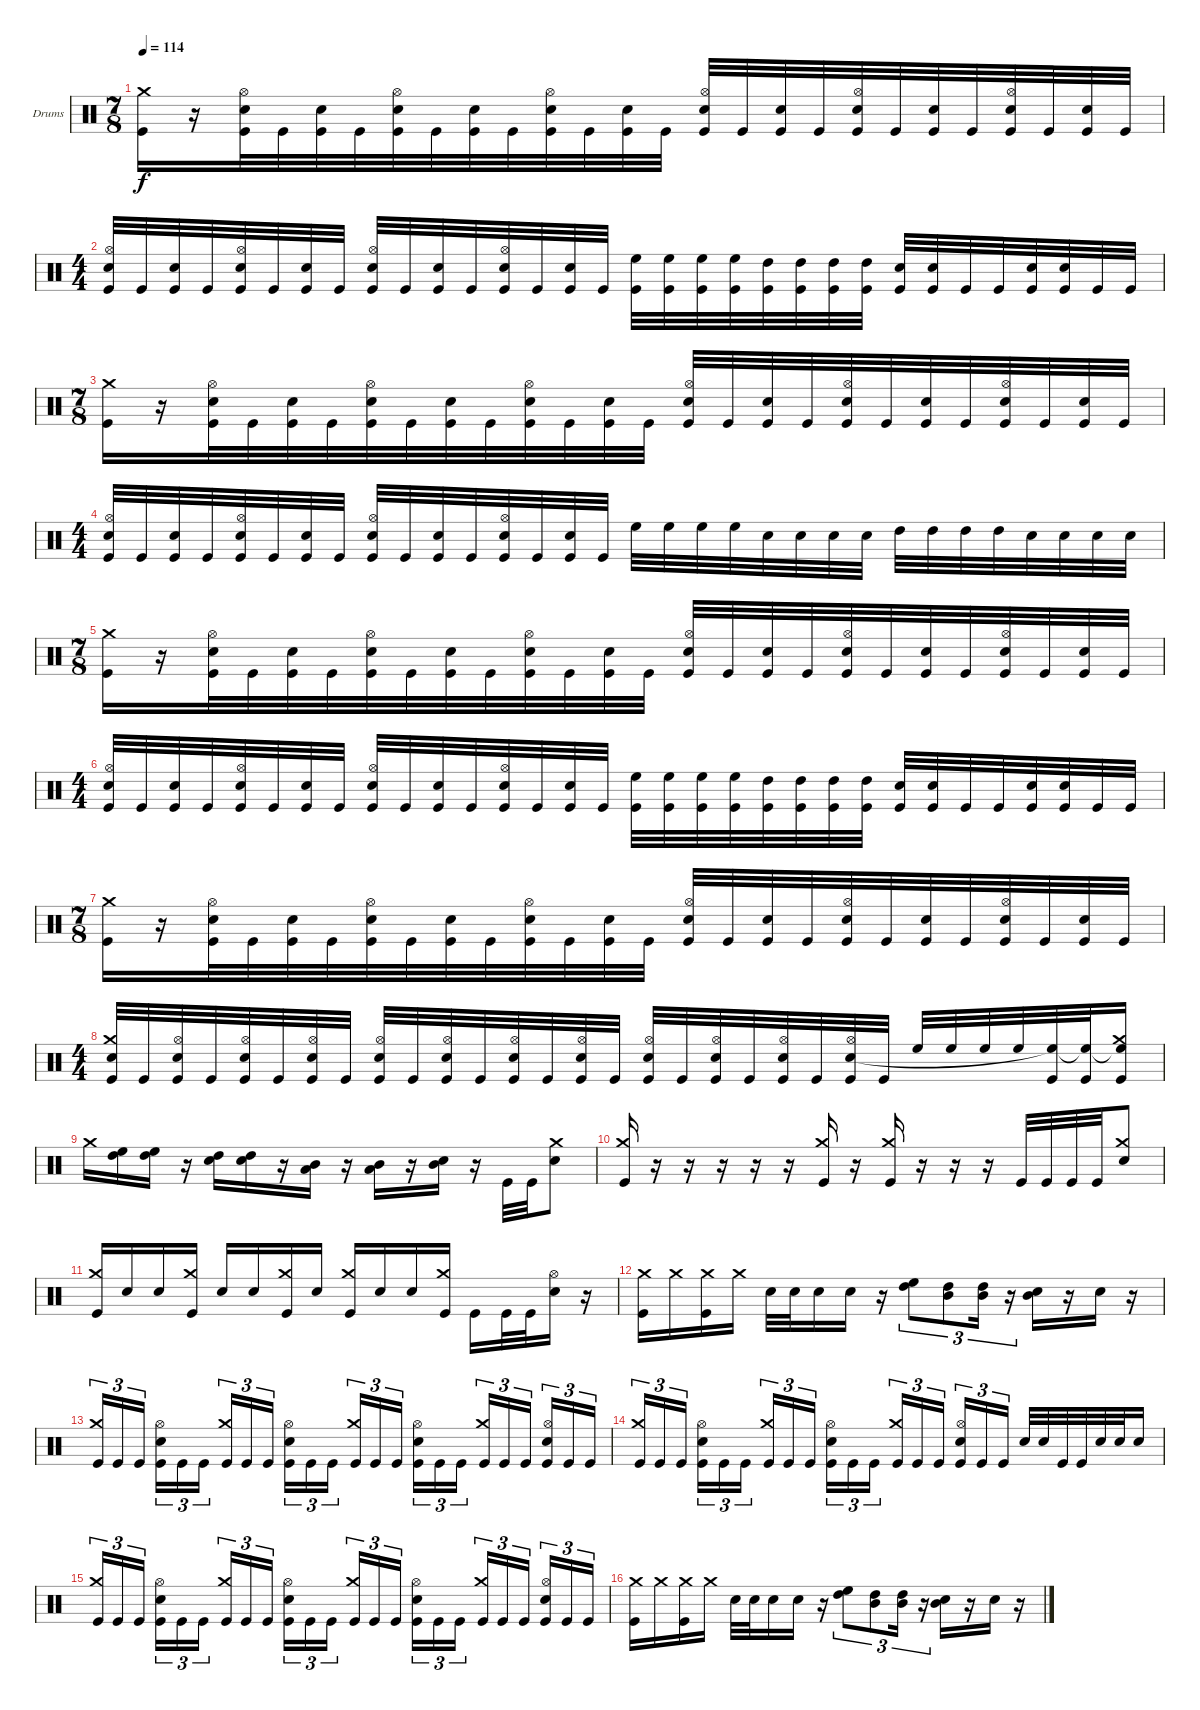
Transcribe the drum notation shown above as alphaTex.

\defaultSystemsLayout 4
\bracketExtendMode groupsimilarinstruments
\firstSystemTrackNameOrientation horizontal
\otherSystemsTrackNameOrientation horizontal
\track ("Drumkit" "Drums") {instrument percussion}
\staff {score}
\articulation defaults
\ts (7 8)
\tempo 114
\clef neutral
\ks c
("Kick (hit)" "Crash medium (hit)").16{dy f} r.16 ("Hi-Hat (open)" "Snare (hit) 2" "Kick (hit)").32 "Kick (hit)".32 ("Snare (hit) 2" "Kick (hit)").32 "Kick (hit)".32 ("Kick (hit)" "Snare (hit) 2" "Hi-Hat (open)").32 "Kick (hit)".32 ("Kick (hit)" "Snare (hit) 2").32 "Kick (hit)".32 ("Snare (hit) 2" "Kick (hit)" "Hi-Hat (open)").32 "Kick (hit)".32 ("Kick (hit)" "Snare (hit) 2").32 "Kick (hit)".32 ("Hi-Hat (open)" "Snare (hit) 2" "Kick (hit)").32 "Kick (hit)".32 ("Kick (hit)" "Snare (hit) 2").32 "Kick (hit)".32 ("Hi-Hat (open)" "Snare (hit) 2" "Kick (hit)").32 "Kick (hit)".32 ("Kick (hit)" "Snare (hit) 2").32 "Kick (hit)".32 ("Kick (hit)" "Snare (hit) 2" "Hi-Hat (open)").32 "Kick (hit)".32 ("Kick (hit)" "Snare (hit) 2").32 "Kick (hit)".32 |
\ts (4 4)
("Hi-Hat (open)" "Snare (hit) 2" "Kick (hit)").32 "Kick (hit)".32 ("Kick (hit)" "Snare (hit) 2").32 "Kick (hit)".32 ("Kick (hit)" "Snare (hit) 2" "Hi-Hat (open)").32 "Kick (hit)".32 ("Kick (hit)" "Snare (hit) 2").32 "Kick (hit)".32 ("Kick (hit)" "Snare (hit) 2" "Hi-Hat (open)").32 "Kick (hit)".32 ("Kick (hit)" "Snare (hit) 2").32 "Kick (hit)".32 ("Kick (hit)" "Snare (hit) 2" "Hi-Hat (open)").32 "Kick (hit)".32 ("Snare (hit) 2" "Kick (hit)").32 "Kick (hit)".32 ("High Floor Tom (hit)" "Kick (hit)").32 ("High Floor Tom (hit)" "Kick (hit)").32 ("High Floor Tom (hit)" "Kick (hit)").32 ("High Floor Tom (hit)" "Kick (hit)").32 ("Kick (hit)" "High Tom (hit)").32{beam invert} ("Kick (hit)" "High Tom (hit)").32 ("Kick (hit)" "High Tom (hit)").32 ("Kick (hit)" "High Tom (hit)").32 ("Snare (hit) 2" "Kick (hit)").32 ("Snare (hit) 2" "Kick (hit)").32 "Kick (hit)".32 "Kick (hit)".32 ("Kick (hit)" "Snare (hit) 2").32 ("Kick (hit)" "Snare (hit) 2").32 "Kick (hit)".32 "Kick (hit)".32 |
\ts (7 8)
("Kick (hit)" "Crash medium (hit)").16 r.16 ("Hi-Hat (open)" "Snare (hit) 2" "Kick (hit)").32 "Kick (hit)".32 ("Snare (hit) 2" "Kick (hit)").32 "Kick (hit)".32 ("Kick (hit)" "Snare (hit) 2" "Hi-Hat (open)").32 "Kick (hit)".32 ("Kick (hit)" "Snare (hit) 2").32 "Kick (hit)".32 ("Snare (hit) 2" "Kick (hit)" "Hi-Hat (open)").32 "Kick (hit)".32 ("Kick (hit)" "Snare (hit) 2").32 "Kick (hit)".32 ("Hi-Hat (open)" "Snare (hit) 2" "Kick (hit)").32 "Kick (hit)".32 ("Kick (hit)" "Snare (hit) 2").32 "Kick (hit)".32 ("Hi-Hat (open)" "Snare (hit) 2" "Kick (hit)").32 "Kick (hit)".32 ("Kick (hit)" "Snare (hit) 2").32 "Kick (hit)".32 ("Kick (hit)" "Snare (hit) 2" "Hi-Hat (open)").32 "Kick (hit)".32 ("Kick (hit)" "Snare (hit) 2").32 "Kick (hit)".32 |
\ts (4 4)
("Hi-Hat (open)" "Snare (hit) 2" "Kick (hit)").32 "Kick (hit)".32 ("Kick (hit)" "Snare (hit) 2").32 "Kick (hit)".32 ("Kick (hit)" "Snare (hit) 2" "Hi-Hat (open)").32 "Kick (hit)".32 ("Kick (hit)" "Snare (hit) 2").32 "Kick (hit)".32 ("Kick (hit)" "Snare (hit) 2" "Hi-Hat (open)").32 "Kick (hit)".32 ("Kick (hit)" "Snare (hit) 2").32 "Kick (hit)".32 ("Kick (hit)" "Snare (hit) 2" "Hi-Hat (open)").32 "Kick (hit)".32 ("Snare (hit) 2" "Kick (hit)").32 "Kick (hit)".32 "High Floor Tom (hit)".32 "High Floor Tom (hit)".32 "High Floor Tom (hit)".32 "High Floor Tom (hit)".32 "Snare (hit) 2".32 "Snare (hit) 2".32 "Snare (hit) 2".32 "Snare (hit) 2".32 "High Tom (hit)".32 "High Tom (hit)".32 "High Tom (hit)".32 "High Tom (hit)".32 "Snare (hit) 2".32 "Snare (hit) 2".32 "Snare (hit) 2".32 "Snare (hit) 2".32 |
\ts (7 8)
("Kick (hit)" "Crash medium (hit)").16 r.16 ("Hi-Hat (open)" "Snare (hit) 2" "Kick (hit)").32 "Kick (hit)".32 ("Snare (hit) 2" "Kick (hit)").32 "Kick (hit)".32 ("Kick (hit)" "Snare (hit) 2" "Hi-Hat (open)").32 "Kick (hit)".32 ("Kick (hit)" "Snare (hit) 2").32 "Kick (hit)".32 ("Snare (hit) 2" "Kick (hit)" "Hi-Hat (open)").32 "Kick (hit)".32 ("Kick (hit)" "Snare (hit) 2").32 "Kick (hit)".32 ("Hi-Hat (open)" "Snare (hit) 2" "Kick (hit)").32 "Kick (hit)".32 ("Kick (hit)" "Snare (hit) 2").32 "Kick (hit)".32 ("Hi-Hat (open)" "Snare (hit) 2" "Kick (hit)").32 "Kick (hit)".32 ("Kick (hit)" "Snare (hit) 2").32 "Kick (hit)".32 ("Kick (hit)" "Snare (hit) 2" "Hi-Hat (open)").32 "Kick (hit)".32 ("Kick (hit)" "Snare (hit) 2").32 "Kick (hit)".32 |
\ts (4 4)
("Hi-Hat (open)" "Snare (hit) 2" "Kick (hit)").32 "Kick (hit)".32 ("Kick (hit)" "Snare (hit) 2").32 "Kick (hit)".32 ("Kick (hit)" "Snare (hit) 2" "Hi-Hat (open)").32 "Kick (hit)".32 ("Kick (hit)" "Snare (hit) 2").32 "Kick (hit)".32 ("Kick (hit)" "Snare (hit) 2" "Hi-Hat (open)").32 "Kick (hit)".32 ("Kick (hit)" "Snare (hit) 2").32 "Kick (hit)".32 ("Kick (hit)" "Snare (hit) 2" "Hi-Hat (open)").32 "Kick (hit)".32 ("Snare (hit) 2" "Kick (hit)").32 "Kick (hit)".32 ("High Floor Tom (hit)" "Kick (hit)").32 ("High Floor Tom (hit)" "Kick (hit)").32 ("High Floor Tom (hit)" "Kick (hit)").32 ("High Floor Tom (hit)" "Kick (hit)").32 ("Kick (hit)" "High Tom (hit)").32{beam invert} ("Kick (hit)" "High Tom (hit)").32 ("Kick (hit)" "High Tom (hit)").32 ("Kick (hit)" "High Tom (hit)").32 ("Snare (hit) 2" "Kick (hit)").32 ("Snare (hit) 2" "Kick (hit)").32 "Kick (hit)".32 "Kick (hit)".32 ("Kick (hit)" "Snare (hit) 2").32 ("Kick (hit)" "Snare (hit) 2").32 "Kick (hit)".32 "Kick (hit)".32 |
\ts (7 8)
("Kick (hit)" "Crash medium (hit)").16 r.16 ("Hi-Hat (open)" "Snare (hit) 2" "Kick (hit)").32 "Kick (hit)".32 ("Snare (hit) 2" "Kick (hit)").32 "Kick (hit)".32 ("Kick (hit)" "Snare (hit) 2" "Hi-Hat (open)").32 "Kick (hit)".32 ("Kick (hit)" "Snare (hit) 2").32 "Kick (hit)".32 ("Snare (hit) 2" "Kick (hit)" "Hi-Hat (open)").32 "Kick (hit)".32 ("Kick (hit)" "Snare (hit) 2").32 "Kick (hit)".32 ("Hi-Hat (open)" "Snare (hit) 2" "Kick (hit)").32 "Kick (hit)".32 ("Kick (hit)" "Snare (hit) 2").32 "Kick (hit)".32 ("Hi-Hat (open)" "Snare (hit) 2" "Kick (hit)").32 "Kick (hit)".32 ("Kick (hit)" "Snare (hit) 2").32 "Kick (hit)".32 ("Kick (hit)" "Snare (hit) 2" "Hi-Hat (open)").32 "Kick (hit)".32 ("Kick (hit)" "Snare (hit) 2").32 "Kick (hit)".32 |
\ts (4 4)
("Snare (hit) 2" "Kick (hit)" "Crash medium (hit)").32 "Kick (hit)".32 ("Kick (hit)" "Snare (hit) 2" "Hi-Hat (open)").32 "Kick (hit)".32 ("Kick (hit)" "Snare (hit) 2" "Hi-Hat (open)").32 "Kick (hit)".32 ("Kick (hit)" "Snare (hit) 2" "Hi-Hat (open)").32 "Kick (hit)".32 ("Hi-Hat (open)" "Snare (hit) 2" "Kick (hit)").32 "Kick (hit)".32 ("Kick (hit)" "Snare (hit) 2" "Hi-Hat (open)").32 "Kick (hit)".32 ("Kick (hit)" "Snare (hit) 2" "Hi-Hat (open)").32 "Kick (hit)".32 ("Kick (hit)" "Snare (hit) 2" "Hi-Hat (open)").32 "Kick (hit)".32 ("Hi-Hat (open)" "Snare (hit) 2" "Kick (hit)").32 "Kick (hit)".32 ("Kick (hit)" "Snare (hit) 2" "Hi-Hat (open)").32 "Kick (hit)".32 ("Kick (hit)" "Snare (hit) 2" "Hi-Hat (open)").32 "Kick (hit)".32 ("Kick (hit)" "Snare (hit) 2" "Hi-Hat (open)").32 "Kick (hit)".32 "High Floor Tom (hit)".32 "High Floor Tom (hit)".32 "High Floor Tom (hit)".32 "High Floor Tom (hit)".32 ("Kick (hit)" "High Floor Tom (hit)"{t}).32 ("Kick (hit)" "High Floor Tom (hit)"{t}).32 ("Kick (hit)" "High Floor Tom (hit)"{t} "Crash medium (hit)").16 |
"Crash medium (hit)".16 ("High Floor Tom (hit)" "High Tom (hit)").16 ("High Floor Tom (hit)" "High Tom (hit)").16 r.16 ("High Tom (hit)" "Snare (hit) 2").16 ("High Tom (hit)" "Snare (hit) 2").16 r.16 ("Mid Tom (hit)" "Low Tom (hit)").16 r.16 ("Mid Tom (hit)" "Low Tom (hit)").16 r.16 ("Snare (hit) 2" "Mid Tom (hit)").16 r.16 "Kick (hit)".32 "Kick (hit)".32 ("Snare (hit) 2" "Crash medium (hit)").8 |
("Kick (hit)" "Crash medium (hit)").16{beam invert} r.16 r.16 r.16 r.16 r.16 ("Kick (hit)" "Crash medium (hit)").16{beam invert} r.16 ("Kick (hit)" "Crash medium (hit)").16 r.16 r.16 r.16 "Kick (hit)".32{beam invert} "Kick (hit)".32 "Kick (hit)".32 "Kick (hit)".32 ("Snare (hit) 2" "Crash medium (hit)").8 |
("Kick (hit)" "Crash medium (hit)").16{beam invert} "Snare (hit) 2".16 "Snare (hit) 2".16 ("Kick (hit)" "Crash medium (hit)").16 "Snare (hit) 2".16{beam invert} "Snare (hit) 2".16 ("Kick (hit)" "Crash medium (hit)").16 "Snare (hit) 2".16 ("Kick (hit)" "Crash medium (hit)").16{beam invert} "Snare (hit) 2".16 "Snare (hit) 2".16 ("Kick (hit)" "Crash medium (hit)").16 "Kick (hit)".16 "Kick (hit)".32 "Kick (hit)".32 ("Snare (hit) 2" "Hi-Hat (open)").16 r.16 |
("Kick (hit)" "Crash medium (hit)").16 "Crash medium (hit)".16 ("Kick (hit)" "Crash medium (hit)").16 "Crash medium (hit)".16 "Snare (hit) 2".32 "Snare (hit) 2".32 "Snare (hit) 2".16 "Snare (hit) 2".16 r.16 ("High Tom (hit)" "High Floor Tom (hit)").8{tu (3 2)} ("High Tom (hit)" "Mid Tom (hit)").8{tu (3 2)} ("Mid Tom (hit)" "High Tom (hit)").16{tu (3 2)} r.16{tu (3 2)} ("Snare (hit) 2" "Mid Tom (hit)").16 r.16 "Snare (hit) 2".16 r.16 |
("Kick (hit)" "Crash medium (hit)").16{tu (3 2) beam invert} "Kick (hit)".16{tu (3 2)} "Kick (hit)".16{tu (3 2)} ("Kick (hit)" "Snare (hit) 2" "Hi-Hat (open)").16{tu (3 2)} "Kick (hit)".16{tu (3 2)} "Kick (hit)".16{tu (3 2)} ("Kick (hit)" "Crash medium (hit)").16{tu (3 2) beam invert} "Kick (hit)".16{tu (3 2)} "Kick (hit)".16{tu (3 2)} ("Kick (hit)" "Snare (hit) 2" "Hi-Hat (open)").16{tu (3 2)} "Kick (hit)".16{tu (3 2)} "Kick (hit)".16{tu (3 2)} ("Kick (hit)" "Crash medium (hit)").16{tu (3 2) beam invert} "Kick (hit)".16{tu (3 2)} "Kick (hit)".16{tu (3 2)} ("Kick (hit)" "Snare (hit) 2" "Hi-Hat (open)").16{tu (3 2)} "Kick (hit)".16{tu (3 2)} "Kick (hit)".16{tu (3 2)} ("Kick (hit)" "Crash medium (hit)").16{tu (3 2) beam invert} "Kick (hit)".16{tu (3 2)} "Kick (hit)".16{tu (3 2)} ("Kick (hit)" "Snare (hit) 2" "Hi-Hat (open)").16{tu (3 2)} "Kick (hit)".16{tu (3 2)} "Kick (hit)".16{tu (3 2)} |
("Kick (hit)" "Crash medium (hit)").16{tu (3 2) beam invert} "Kick (hit)".16{tu (3 2)} "Kick (hit)".16{tu (3 2)} ("Kick (hit)" "Snare (hit) 2" "Hi-Hat (open)").16{tu (3 2)} "Kick (hit)".16{tu (3 2)} "Kick (hit)".16{tu (3 2)} ("Kick (hit)" "Crash medium (hit)").16{tu (3 2) beam invert} "Kick (hit)".16{tu (3 2)} "Kick (hit)".16{tu (3 2)} ("Kick (hit)" "Snare (hit) 2" "Hi-Hat (open)").16{tu (3 2)} "Kick (hit)".16{tu (3 2)} "Kick (hit)".16{tu (3 2)} ("Kick (hit)" "Crash medium (hit)").16{tu (3 2) beam invert} "Kick (hit)".16{tu (3 2)} "Kick (hit)".16{tu (3 2)} ("Kick (hit)" "Snare (hit) 2" "Hi-Hat (open)").16{tu (3 2)} "Kick (hit)".16{tu (3 2)} "Kick (hit)".16{tu (3 2)} "Snare (hit) 2".32 "Snare (hit) 2".32 "Kick (hit)".32 "Kick (hit)".32 "Snare (hit) 2".32 "Snare (hit) 2".32 "Snare (hit) 2".16 |
("Kick (hit)" "Crash medium (hit)").16{tu (3 2) beam invert} "Kick (hit)".16{tu (3 2)} "Kick (hit)".16{tu (3 2)} ("Kick (hit)" "Snare (hit) 2" "Hi-Hat (open)").16{tu (3 2)} "Kick (hit)".16{tu (3 2)} "Kick (hit)".16{tu (3 2)} ("Kick (hit)" "Crash medium (hit)").16{tu (3 2) beam invert} "Kick (hit)".16{tu (3 2)} "Kick (hit)".16{tu (3 2)} ("Kick (hit)" "Snare (hit) 2" "Hi-Hat (open)").16{tu (3 2)} "Kick (hit)".16{tu (3 2)} "Kick (hit)".16{tu (3 2)} ("Kick (hit)" "Crash medium (hit)").16{tu (3 2) beam invert} "Kick (hit)".16{tu (3 2)} "Kick (hit)".16{tu (3 2)} ("Kick (hit)" "Snare (hit) 2" "Hi-Hat (open)").16{tu (3 2)} "Kick (hit)".16{tu (3 2)} "Kick (hit)".16{tu (3 2)} ("Kick (hit)" "Crash medium (hit)").16{tu (3 2) beam invert} "Kick (hit)".16{tu (3 2)} "Kick (hit)".16{tu (3 2)} ("Kick (hit)" "Snare (hit) 2" "Hi-Hat (open)").16{tu (3 2)} "Kick (hit)".16{tu (3 2)} "Kick (hit)".16{tu (3 2)} |
("Kick (hit)" "Crash medium (hit)").16 "Crash medium (hit)".16 ("Kick (hit)" "Crash medium (hit)").16 "Crash medium (hit)".16 "Snare (hit) 2".32 "Snare (hit) 2".32 "Snare (hit) 2".16 "Snare (hit) 2".16 r.16 ("High Tom (hit)" "High Floor Tom (hit)").8{tu (3 2)} ("High Tom (hit)" "Mid Tom (hit)").8{tu (3 2)} ("Mid Tom (hit)" "High Tom (hit)").16{tu (3 2)} r.16{tu (3 2)} ("Snare (hit) 2" "Mid Tom (hit)").16 r.16 "Snare (hit) 2".16 r.16
